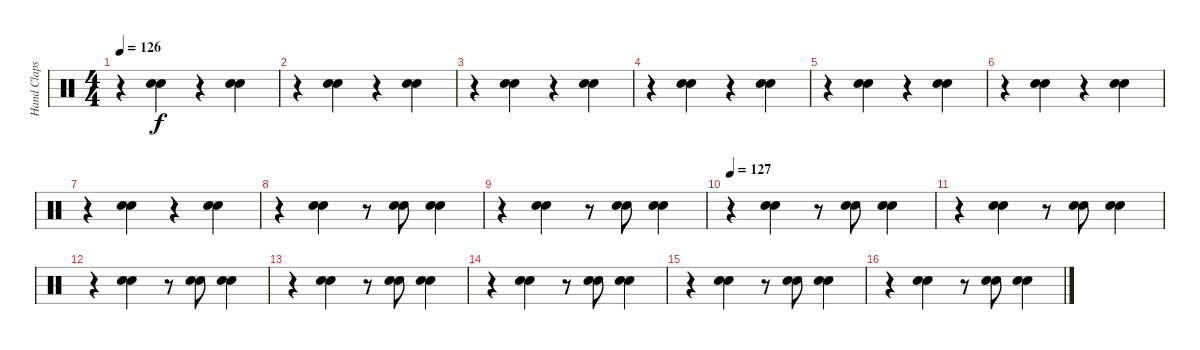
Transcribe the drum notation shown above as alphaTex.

\track ("Hand Claps" "Hand Claps") {instrument percussion}
\staff {score}
\articulation defaults
\ts (4 4)
\tempo 126
\clef neutral
\ks c
r.4{dy f} ("Hand Clap (hit)" "Hand Clap (hit)").4 r.4 ("Hand Clap (hit)" "Hand Clap (hit)").4 |
r.4 ("Hand Clap (hit)" "Hand Clap (hit)").4 r.4 ("Hand Clap (hit)" "Hand Clap (hit)").4 |
r.4 ("Hand Clap (hit)" "Hand Clap (hit)").4 r.4 ("Hand Clap (hit)" "Hand Clap (hit)").4 |
r.4 ("Hand Clap (hit)" "Hand Clap (hit)").4 r.4 ("Hand Clap (hit)" "Hand Clap (hit)").4 |
r.4 ("Hand Clap (hit)" "Hand Clap (hit)").4 r.4 ("Hand Clap (hit)" "Hand Clap (hit)").4 |
r.4 ("Hand Clap (hit)" "Hand Clap (hit)").4 r.4 ("Hand Clap (hit)" "Hand Clap (hit)").4 |
r.4 ("Hand Clap (hit)" "Hand Clap (hit)").4 r.4 ("Hand Clap (hit)" "Hand Clap (hit)").4 |
r.4 ("Hand Clap (hit)" "Hand Clap (hit)").4 r.8 ("Hand Clap (hit)" "Hand Clap (hit)").8 ("Hand Clap (hit)" "Hand Clap (hit)").4 |
r.4 ("Hand Clap (hit)" "Hand Clap (hit)").4 r.8 ("Hand Clap (hit)" "Hand Clap (hit)").8 ("Hand Clap (hit)" "Hand Clap (hit)").4 |
\tempo 127
r.4 ("Hand Clap (hit)" "Hand Clap (hit)").4 r.8 ("Hand Clap (hit)" "Hand Clap (hit)").8 ("Hand Clap (hit)" "Hand Clap (hit)").4 |
r.4 ("Hand Clap (hit)" "Hand Clap (hit)").4 r.8 ("Hand Clap (hit)" "Hand Clap (hit)").8 ("Hand Clap (hit)" "Hand Clap (hit)").4 |
r.4 ("Hand Clap (hit)" "Hand Clap (hit)").4 r.8 ("Hand Clap (hit)" "Hand Clap (hit)").8 ("Hand Clap (hit)" "Hand Clap (hit)").4 |
r.4 ("Hand Clap (hit)" "Hand Clap (hit)").4 r.8 ("Hand Clap (hit)" "Hand Clap (hit)").8 ("Hand Clap (hit)" "Hand Clap (hit)").4 |
r.4 ("Hand Clap (hit)" "Hand Clap (hit)").4 r.8 ("Hand Clap (hit)" "Hand Clap (hit)").8 ("Hand Clap (hit)" "Hand Clap (hit)").4 |
r.4 ("Hand Clap (hit)" "Hand Clap (hit)").4 r.8 ("Hand Clap (hit)" "Hand Clap (hit)").8 ("Hand Clap (hit)" "Hand Clap (hit)").4 |
r.4 ("Hand Clap (hit)" "Hand Clap (hit)").4 r.8 ("Hand Clap (hit)" "Hand Clap (hit)").8 ("Hand Clap (hit)" "Hand Clap (hit)").4
